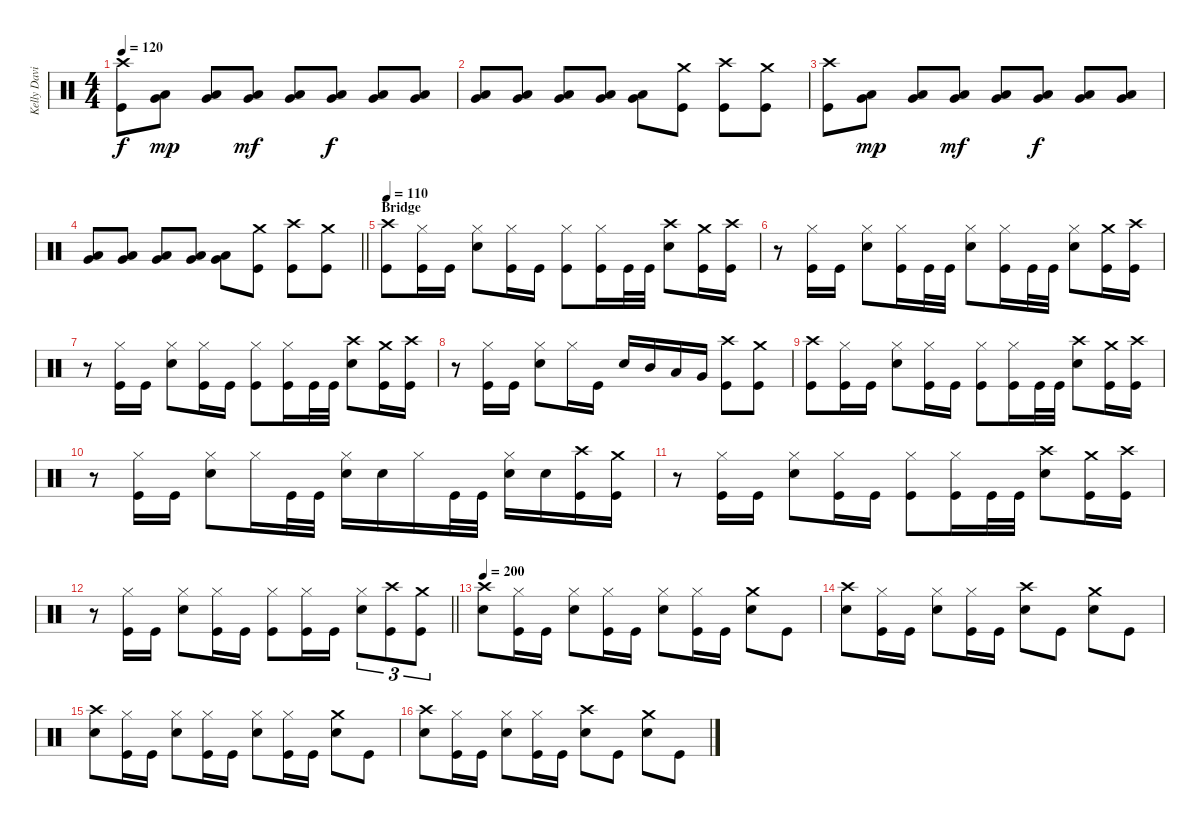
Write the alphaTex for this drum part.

\track ("Kelly David Smith" "Kelly Davi") {instrument percussion}
\staff {score}
\articulation defaults
\ts (4 4)
\tempo 120
\clef neutral
\ks c
("Crash high (hit)" "Kick (hit)").8{dy f} ("Low Tom (hit)" "Very Low Tom (hit)").8{dy mp} ("Low Tom (hit)" "Very Low Tom (hit)").8 ("Low Tom (hit)" "Very Low Tom (hit)").8{dy mf} ("Low Tom (hit)" "Very Low Tom (hit)").8 ("Low Tom (hit)" "Very Low Tom (hit)").8{dy f} ("Low Tom (hit)" "Very Low Tom (hit)").8 ("Low Tom (hit)" "Very Low Tom (hit)").8 |
("Low Tom (hit)" "Very Low Tom (hit)").8 ("Low Tom (hit)" "Very Low Tom (hit)").8 ("Low Tom (hit)" "Very Low Tom (hit)").8 ("Low Tom (hit)" "Very Low Tom (hit)").8 ("Low Tom (hit)" "Very Low Tom (hit)").8 ("Crash medium (hit)" "Kick (hit)").8 ("Crash high (hit)" "Kick (hit)").8 ("Crash medium (hit)" "Kick (hit)").8 |
("Crash high (hit)" "Kick (hit)").8 ("Low Tom (hit)" "Very Low Tom (hit)").8{dy mp} ("Low Tom (hit)" "Very Low Tom (hit)").8 ("Low Tom (hit)" "Very Low Tom (hit)").8{dy mf} ("Low Tom (hit)" "Very Low Tom (hit)").8 ("Low Tom (hit)" "Very Low Tom (hit)").8{dy f} ("Low Tom (hit)" "Very Low Tom (hit)").8 ("Low Tom (hit)" "Very Low Tom (hit)").8 |
\barLineRight lightlight
("Low Tom (hit)" "Very Low Tom (hit)").8 ("Low Tom (hit)" "Very Low Tom (hit)").8 ("Low Tom (hit)" "Very Low Tom (hit)").8 ("Low Tom (hit)" "Very Low Tom (hit)").8 ("Low Tom (hit)" "Very Low Tom (hit)").8 ("Crash medium (hit)" "Kick (hit)").8 ("Crash high (hit)" "Kick (hit)").8 ("Crash medium (hit)" "Kick (hit)").8 |
\section ("" "Bridge")
\tempo 110
("Crash high (hit)" "Kick (hit)").8 ("Hi-Hat (closed)" "Kick (hit)").16 "Kick (hit)".16 ("Hi-Hat (closed)" "Snare (hit) 2").8 ("Hi-Hat (closed)" "Kick (hit)").16 "Kick (hit)".16 ("Hi-Hat (closed)" "Kick (hit)").8 ("Hi-Hat (closed)" "Kick (hit)").16 "Kick (hit)".32 "Kick (hit)".32 ("Crash high (hit)" "Snare (hit) 2").8 ("Crash medium (hit)" "Kick (hit)").16 ("Crash high (hit)" "Kick (hit)").16 |
r.8 ("Hi-Hat (closed)" "Kick (hit)").16 "Kick (hit)".16 ("Hi-Hat (closed)" "Snare (hit) 2").8 ("Hi-Hat (closed)" "Kick (hit)").16 "Kick (hit)".32 "Kick (hit)".32 ("Hi-Hat (closed)" "Snare (hit) 2").8 ("Hi-Hat (closed)" "Kick (hit)").16 "Kick (hit)".32 "Kick (hit)".32 ("Hi-Hat (closed)" "Snare (hit) 2").8 ("Crash medium (hit)" "Kick (hit)").16 ("Crash high (hit)" "Kick (hit)").16 |
r.8 ("Hi-Hat (closed)" "Kick (hit)").16 "Kick (hit)".16 ("Hi-Hat (closed)" "Snare (hit) 2").8 ("Hi-Hat (closed)" "Kick (hit)").16 "Kick (hit)".16 ("Hi-Hat (closed)" "Kick (hit)").8 ("Hi-Hat (closed)" "Kick (hit)").16 "Kick (hit)".32 "Kick (hit)".32 ("Crash high (hit)" "Snare (hit) 2").8 ("Crash medium (hit)" "Kick (hit)").16 ("Crash high (hit)" "Kick (hit)").16 |
r.8 ("Hi-Hat (closed)" "Kick (hit)").16 "Kick (hit)".16 ("Hi-Hat (closed)" "Snare (hit) 2").8 "Hi-Hat (closed)".16 "Kick (hit)".16 "Snare (hit) 2".16 "Mid Tom (hit)".16 "Low Tom (hit)".16 "Very Low Tom (hit)".16 ("Crash high (hit)" "Kick (hit)").8 ("Crash medium (hit)" "Kick (hit)").8 |
("Crash high (hit)" "Kick (hit)").8 ("Hi-Hat (closed)" "Kick (hit)").16 "Kick (hit)".16 ("Hi-Hat (closed)" "Snare (hit) 2").8 ("Hi-Hat (closed)" "Kick (hit)").16 "Kick (hit)".16 ("Hi-Hat (closed)" "Kick (hit)").8 ("Hi-Hat (closed)" "Kick (hit)").16 "Kick (hit)".32 "Kick (hit)".32 ("Crash high (hit)" "Snare (hit) 2").8 ("Crash medium (hit)" "Kick (hit)").16 ("Crash high (hit)" "Kick (hit)").16 |
r.8 ("Hi-Hat (closed)" "Kick (hit)").16 "Kick (hit)".16 ("Hi-Hat (closed)" "Snare (hit) 2").8 "Hi-Hat (closed)".16 "Kick (hit)".32 "Kick (hit)".32 ("Hi-Hat (closed)" "Snare (hit) 2").16 "Snare (hit) 2".16 "Hi-Hat (closed)".16 "Kick (hit)".32 "Kick (hit)".32 ("Hi-Hat (closed)" "Snare (hit) 2").16 "Snare (hit) 2".16 ("Crash high (hit)" "Kick (hit)").16 ("Crash medium (hit)" "Kick (hit)").16 |
r.8 ("Hi-Hat (closed)" "Kick (hit)").16 "Kick (hit)".16 ("Hi-Hat (closed)" "Snare (hit) 2").8 ("Hi-Hat (closed)" "Kick (hit)").16 "Kick (hit)".16 ("Hi-Hat (closed)" "Kick (hit)").8 ("Hi-Hat (closed)" "Kick (hit)").16 "Kick (hit)".32 "Kick (hit)".32 ("Crash high (hit)" "Snare (hit) 2").8 ("Crash medium (hit)" "Kick (hit)").16 ("Crash high (hit)" "Kick (hit)").16 |
\barLineRight lightlight
r.8 ("Hi-Hat (closed)" "Kick (hit)").16 "Kick (hit)".16 ("Hi-Hat (closed)" "Snare (hit) 2").8 ("Hi-Hat (closed)" "Kick (hit)").16 "Kick (hit)".16 ("Hi-Hat (closed)" "Kick (hit)").8 ("Hi-Hat (closed)" "Kick (hit)").16 "Kick (hit)".16 ("Hi-Hat (closed)" "Snare (hit) 2").8{tu (3 2)} ("Crash high (hit)" "Kick (hit)").8{tu (3 2)} ("Crash medium (hit)" "Kick (hit)").8{tu (3 2)} |
\tempo 200
("Crash high (hit)" "Snare (hit) 2").8 ("Hi-Hat (closed)" "Kick (hit)").16 "Kick (hit)".16 ("Hi-Hat (closed)" "Snare (hit) 2").8 ("Hi-Hat (closed)" "Kick (hit)").16 "Kick (hit)".16 ("Hi-Hat (closed)" "Snare (hit) 2").8 ("Hi-Hat (closed)" "Kick (hit)").16 "Kick (hit)".16 ("Crash medium (hit)" "Snare (hit) 2").8 "Kick (hit)".8 |
("Crash high (hit)" "Snare (hit) 2").8 ("Hi-Hat (closed)" "Kick (hit)").16 "Kick (hit)".16 ("Hi-Hat (closed)" "Snare (hit) 2").8 ("Hi-Hat (closed)" "Kick (hit)").16 "Kick (hit)".16 ("Crash high (hit)" "Snare (hit) 2").8 "Kick (hit)".8 ("Crash medium (hit)" "Snare (hit) 2").8 "Kick (hit)".8 |
("Crash high (hit)" "Snare (hit) 2").8 ("Hi-Hat (closed)" "Kick (hit)").16 "Kick (hit)".16 ("Hi-Hat (closed)" "Snare (hit) 2").8 ("Hi-Hat (closed)" "Kick (hit)").16 "Kick (hit)".16 ("Hi-Hat (closed)" "Snare (hit) 2").8 ("Hi-Hat (closed)" "Kick (hit)").16 "Kick (hit)".16 ("Crash medium (hit)" "Snare (hit) 2").8 "Kick (hit)".8 |
("Crash high (hit)" "Snare (hit) 2").8 ("Hi-Hat (closed)" "Kick (hit)").16 "Kick (hit)".16 ("Hi-Hat (closed)" "Snare (hit) 2").8 ("Hi-Hat (closed)" "Kick (hit)").16 "Kick (hit)".16 ("Crash high (hit)" "Snare (hit) 2").8 "Kick (hit)".8 ("Crash medium (hit)" "Snare (hit) 2").8 "Kick (hit)".8
